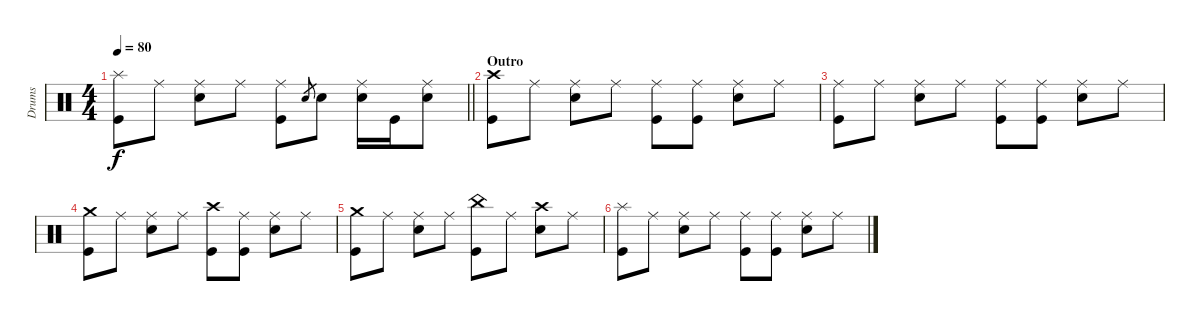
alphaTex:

\track ("Drums" "Drums") {instrument percussion}
\staff {score}
\articulation defaults
\ts (4 4)
\tempo 80
\clef neutral
\barLineRight lightlight
\ks c
("Splash (hit)" "Kick (hit)").8{dy f} "Ride (middle)".8 ("Snare (hit) 2" "Ride (middle)").8 "Ride (middle)".8 ("Kick (hit)" "Ride (middle)").8 "Snare (hit) 2".8{gr} "Snare (hit) 2".8 ("Snare (hit) 2" "Ride (middle)").16 "Kick (hit)".16 ("Snare (hit) 2" "Ride (middle)").8 |
\section ("" "Outro")
("Crash high (hit)" "Kick (hit)").8{volume 0} "Ride (middle)".8 ("Snare (hit) 2" "Ride (middle)").8 "Ride (middle)".8 ("Kick (hit)" "Ride (middle)").8 ("Kick (hit)" "Ride (middle)").8 ("Snare (hit) 2" "Ride (middle)").8 "Ride (middle)".8 |
("Ride (middle)" "Kick (hit)").8 "Ride (middle)".8 ("Snare (hit) 2" "Ride (middle)").8 "Ride (middle)".8 ("Kick (hit)" "Ride (middle)").8 ("Kick (hit)" "Ride (middle)").8 ("Snare (hit) 2" "Ride (middle)").8 "Ride (middle)".8 |
("Crash medium (hit)" "Kick (hit)").8 "Ride (middle)".8 ("Snare (hit) 2" "Ride (middle)").8 "Ride (middle)".8 ("Kick (hit)" "Crash high (hit)").8 ("Kick (hit)" "Ride (middle)").8 ("Snare (hit) 2" "Ride (middle)").8 "Ride (middle)".8 |
("Crash medium (hit)" "Kick (hit)").8 "Ride (middle)".8 ("Snare (hit) 2" "Ride (middle)").8 "Ride (middle)".8 ("Kick (hit)" "China (hit)").8 "Ride (middle)".8 ("Snare (hit) 2" "Crash high (hit)").8 "Ride (middle)".8 |
("Splash (hit)" "Kick (hit)").8 "Ride (middle)".8 ("Snare (hit) 2" "Ride (middle)").8 "Ride (middle)".8 ("Kick (hit)" "Ride (middle)").8 ("Kick (hit)" "Ride (middle)").8 ("Snare (hit) 2" "Ride (middle)").8 "Ride (middle)".8
